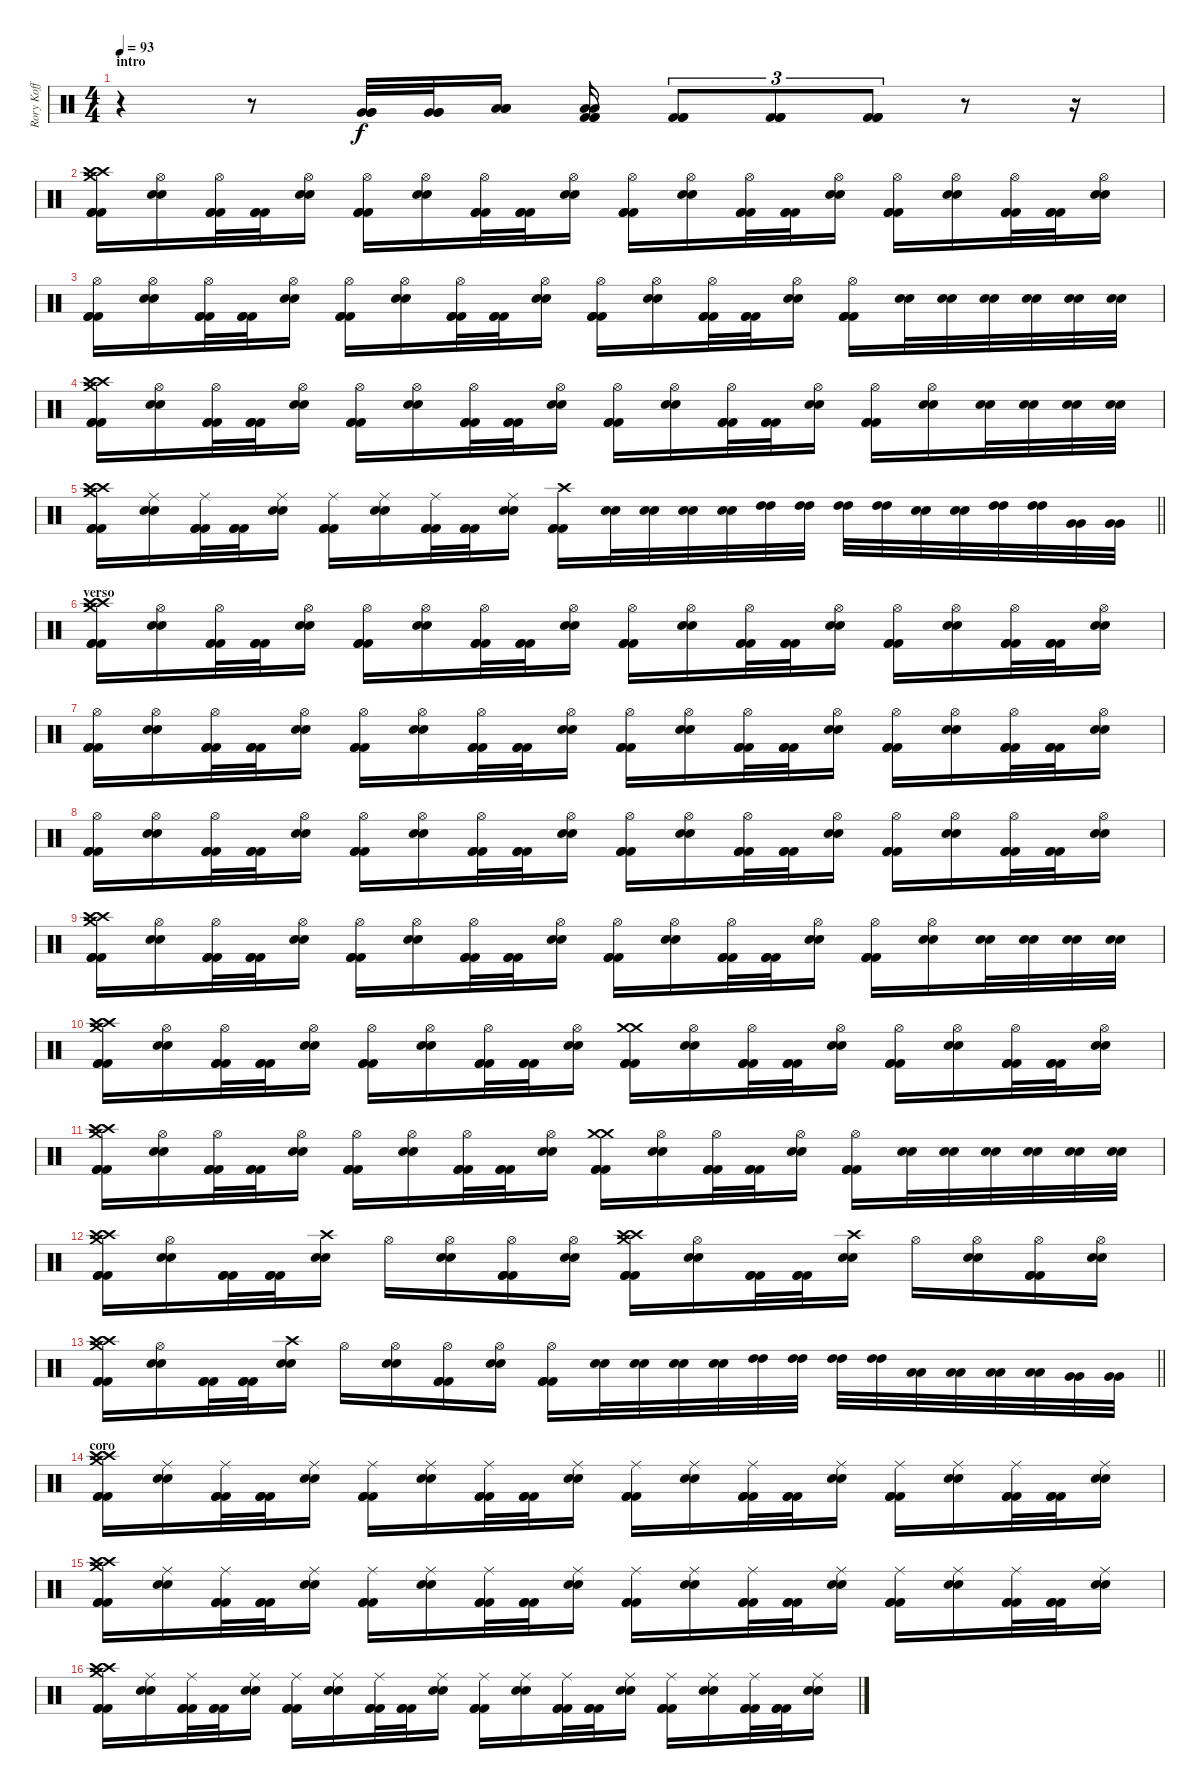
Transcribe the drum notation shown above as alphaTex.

\track ("Rory Koff" "Rory Koff") {instrument percussion}
\staff {score}
\articulation defaults
\ts (4 4)
\section ("" "intro")
\tempo 93
\clef neutral
\ks c
r.4{dy f} r.8 ("Very Low Tom (hit)" "Very Low Tom (hit)" "Very Low Tom (hit)").32 ("Very Low Tom (hit)" "Very Low Tom (hit)" "Very Low Tom (hit)").32 ("Low Floor Tom (hit)" "Low Floor Tom (hit)" "Low Floor Tom (hit)").16 ("Kick (hit) 2" "Low Floor Tom (hit)" "Low Floor Tom (hit)" "Kick (hit) 2" "Kick (hit) 2").16 ("Kick (hit) 2" "Kick (hit) 2" "Kick (hit) 2").8{tu (3 2)} ("Kick (hit) 2" "Kick (hit) 2" "Kick (hit) 2").8{tu (3 2)} ("Kick (hit) 2" "Kick (hit) 2" "Kick (hit) 2").8{tu (3 2)} r.8 r.16 |
("Crash high (hit)" "Crash medium (hit)" "Crash high (hit)" "Kick (hit) 2" "Kick (hit) 2" "Kick (hit) 2").16 ("Hi-Hat (open)" "Electric Snare (hit)" "Electric Snare (hit)").16 ("Hi-Hat (open)" "Kick (hit) 2" "Kick (hit) 2" "Kick (hit) 2").32 ("Kick (hit) 2" "Kick (hit) 2" "Kick (hit) 2").32 ("Hi-Hat (open)" "Electric Snare (hit)" "Electric Snare (hit)").16 ("Hi-Hat (open)" "Kick (hit) 2" "Kick (hit) 2" "Kick (hit) 2").16 ("Hi-Hat (open)" "Electric Snare (hit)" "Electric Snare (hit)").16 ("Hi-Hat (open)" "Kick (hit) 2" "Kick (hit) 2" "Kick (hit) 2").32 ("Kick (hit) 2" "Kick (hit) 2" "Kick (hit) 2").32 ("Hi-Hat (open)" "Electric Snare (hit)" "Electric Snare (hit)").16 ("Hi-Hat (open)" "Kick (hit) 2" "Kick (hit) 2" "Kick (hit) 2").16 ("Hi-Hat (open)" "Electric Snare (hit)" "Electric Snare (hit)").16 ("Hi-Hat (open)" "Kick (hit) 2" "Kick (hit) 2" "Kick (hit) 2").32 ("Kick (hit) 2" "Kick (hit) 2" "Kick (hit) 2").32 ("Hi-Hat (open)" "Electric Snare (hit)" "Electric Snare (hit)").16 ("Hi-Hat (open)" "Kick (hit) 2" "Kick (hit) 2" "Kick (hit) 2").16 ("Hi-Hat (open)" "Electric Snare (hit)" "Electric Snare (hit)").16 ("Hi-Hat (open)" "Kick (hit) 2" "Kick (hit) 2" "Kick (hit) 2").32 ("Kick (hit) 2" "Kick (hit) 2" "Kick (hit) 2").32 ("Hi-Hat (open)" "Electric Snare (hit)" "Electric Snare (hit)").16 |
("Hi-Hat (open)" "Kick (hit) 2" "Kick (hit) 2" "Kick (hit) 2").16 ("Hi-Hat (open)" "Electric Snare (hit)" "Electric Snare (hit)").16 ("Hi-Hat (open)" "Kick (hit) 2" "Kick (hit) 2" "Kick (hit) 2").32 ("Kick (hit) 2" "Kick (hit) 2" "Kick (hit) 2").32 ("Hi-Hat (open)" "Electric Snare (hit)" "Electric Snare (hit)").16 ("Hi-Hat (open)" "Kick (hit) 2" "Kick (hit) 2" "Kick (hit) 2").16 ("Hi-Hat (open)" "Electric Snare (hit)" "Electric Snare (hit)").16 ("Hi-Hat (open)" "Kick (hit) 2" "Kick (hit) 2" "Kick (hit) 2").32 ("Kick (hit) 2" "Kick (hit) 2" "Kick (hit) 2").32 ("Hi-Hat (open)" "Electric Snare (hit)" "Electric Snare (hit)").16 ("Hi-Hat (open)" "Kick (hit) 2" "Kick (hit) 2" "Kick (hit) 2").16 ("Hi-Hat (open)" "Electric Snare (hit)" "Electric Snare (hit)").16 ("Hi-Hat (open)" "Kick (hit) 2" "Kick (hit) 2" "Kick (hit) 2").32 ("Kick (hit) 2" "Kick (hit) 2" "Kick (hit) 2").32 ("Hi-Hat (open)" "Electric Snare (hit)" "Electric Snare (hit)").16 ("Hi-Hat (open)" "Kick (hit) 2" "Kick (hit) 2" "Kick (hit) 2").16 ("Electric Snare (hit)" "Electric Snare (hit)").32 ("Electric Snare (hit)" "Electric Snare (hit)").32 ("Electric Snare (hit)" "Electric Snare (hit)").32 ("Electric Snare (hit)" "Electric Snare (hit)").32 ("Electric Snare (hit)" "Electric Snare (hit)").32 ("Electric Snare (hit)" "Electric Snare (hit)").32 |
("Crash high (hit)" "Crash medium (hit)" "Crash high (hit)" "Kick (hit) 2" "Kick (hit) 2" "Kick (hit) 2").16 ("Hi-Hat (open)" "Electric Snare (hit)" "Electric Snare (hit)").16 ("Hi-Hat (open)" "Kick (hit) 2" "Kick (hit) 2" "Kick (hit) 2").32 ("Kick (hit) 2" "Kick (hit) 2" "Kick (hit) 2").32 ("Hi-Hat (open)" "Electric Snare (hit)" "Electric Snare (hit)").16 ("Hi-Hat (open)" "Kick (hit) 2" "Kick (hit) 2" "Kick (hit) 2").16 ("Hi-Hat (open)" "Electric Snare (hit)" "Electric Snare (hit)").16 ("Hi-Hat (open)" "Kick (hit) 2" "Kick (hit) 2" "Kick (hit) 2").32 ("Kick (hit) 2" "Kick (hit) 2" "Kick (hit) 2").32 ("Hi-Hat (open)" "Electric Snare (hit)" "Electric Snare (hit)").16 ("Hi-Hat (open)" "Kick (hit) 2" "Kick (hit) 2" "Kick (hit) 2").16 ("Hi-Hat (open)" "Electric Snare (hit)" "Electric Snare (hit)").16 ("Hi-Hat (open)" "Kick (hit) 2" "Kick (hit) 2" "Kick (hit) 2").32 ("Kick (hit) 2" "Kick (hit) 2" "Kick (hit) 2").32 ("Hi-Hat (open)" "Electric Snare (hit)" "Electric Snare (hit)").16 ("Hi-Hat (open)" "Kick (hit) 2" "Kick (hit) 2" "Kick (hit) 2").16 ("Hi-Hat (open)" "Electric Snare (hit)" "Electric Snare (hit)").16 ("Electric Snare (hit)" "Electric Snare (hit)").32 ("Electric Snare (hit)" "Electric Snare (hit)").32 ("Electric Snare (hit)" "Electric Snare (hit)").32 ("Electric Snare (hit)" "Electric Snare (hit)").32 |
\barLineRight lightlight
("Crash high (hit)" "Crash medium (hit)" "Crash high (hit)" "Kick (hit) 2" "Kick (hit) 2" "Kick (hit) 2").16 ("Ride (middle)" "Electric Snare (hit)" "Electric Snare (hit)").16 ("Ride (middle)" "Kick (hit) 2" "Kick (hit) 2" "Kick (hit) 2").32 ("Kick (hit) 2" "Kick (hit) 2" "Kick (hit) 2").32 ("Ride (middle)" "Electric Snare (hit)" "Electric Snare (hit)").16 ("Ride (middle)" "Kick (hit) 2" "Kick (hit) 2" "Kick (hit) 2").16 ("Ride (middle)" "Electric Snare (hit)" "Electric Snare (hit)").16 ("Ride (middle)" "Kick (hit) 2" "Kick (hit) 2" "Kick (hit) 2").32 ("Kick (hit) 2" "Kick (hit) 2" "Kick (hit) 2").32 ("Ride (middle)" "Electric Snare (hit)" "Electric Snare (hit)").16 ("Crash high (hit)" "Kick (hit) 2" "Kick (hit) 2" "Kick (hit) 2").16 ("Electric Snare (hit)" "Electric Snare (hit)").32 ("Electric Snare (hit)" "Electric Snare (hit)").32 ("Electric Snare (hit)" "Electric Snare (hit)").32 ("Electric Snare (hit)" "Electric Snare (hit)").32 ("High Tom (hit)" "High Tom (hit)").32 ("High Tom (hit)" "High Tom (hit)").32 ("High Tom (hit)" "High Tom (hit)").32 ("High Tom (hit)" "High Tom (hit)").32 ("Electric Snare (hit)" "Electric Snare (hit)").32 ("Electric Snare (hit)" "Electric Snare (hit)").32 ("High Tom (hit)" "High Tom (hit)").32 ("High Tom (hit)" "High Tom (hit)").32 ("Very Low Tom (hit)" "Very Low Tom (hit)").32 ("Very Low Tom (hit)" "Very Low Tom (hit)").32 |
\section ("" "verso")
("Crash high (hit)" "Crash medium (hit)" "Crash high (hit)" "Kick (hit) 2" "Kick (hit) 2" "Kick (hit) 2").16 ("Hi-Hat (open)" "Electric Snare (hit)" "Electric Snare (hit)").16 ("Hi-Hat (open)" "Kick (hit) 2" "Kick (hit) 2" "Kick (hit) 2").32 ("Kick (hit) 2" "Kick (hit) 2" "Kick (hit) 2").32 ("Hi-Hat (open)" "Electric Snare (hit)" "Electric Snare (hit)").16 ("Hi-Hat (open)" "Kick (hit) 2" "Kick (hit) 2" "Kick (hit) 2").16 ("Hi-Hat (open)" "Electric Snare (hit)" "Electric Snare (hit)").16 ("Hi-Hat (open)" "Kick (hit) 2" "Kick (hit) 2" "Kick (hit) 2").32 ("Kick (hit) 2" "Kick (hit) 2" "Kick (hit) 2").32 ("Hi-Hat (open)" "Electric Snare (hit)" "Electric Snare (hit)").16 ("Hi-Hat (open)" "Kick (hit) 2" "Kick (hit) 2" "Kick (hit) 2").16 ("Hi-Hat (open)" "Electric Snare (hit)" "Electric Snare (hit)").16 ("Hi-Hat (open)" "Kick (hit) 2" "Kick (hit) 2" "Kick (hit) 2").32 ("Kick (hit) 2" "Kick (hit) 2" "Kick (hit) 2").32 ("Hi-Hat (open)" "Electric Snare (hit)" "Electric Snare (hit)").16 ("Hi-Hat (open)" "Kick (hit) 2" "Kick (hit) 2" "Kick (hit) 2").16 ("Hi-Hat (open)" "Electric Snare (hit)" "Electric Snare (hit)").16 ("Hi-Hat (open)" "Kick (hit) 2" "Kick (hit) 2" "Kick (hit) 2").32 ("Kick (hit) 2" "Kick (hit) 2" "Kick (hit) 2").32 ("Hi-Hat (open)" "Electric Snare (hit)" "Electric Snare (hit)").16 |
("Hi-Hat (open)" "Kick (hit) 2" "Kick (hit) 2" "Kick (hit) 2").16 ("Hi-Hat (open)" "Electric Snare (hit)" "Electric Snare (hit)").16 ("Hi-Hat (open)" "Kick (hit) 2" "Kick (hit) 2" "Kick (hit) 2").32 ("Kick (hit) 2" "Kick (hit) 2" "Kick (hit) 2").32 ("Hi-Hat (open)" "Electric Snare (hit)" "Electric Snare (hit)").16 ("Hi-Hat (open)" "Kick (hit) 2" "Kick (hit) 2" "Kick (hit) 2").16 ("Hi-Hat (open)" "Electric Snare (hit)" "Electric Snare (hit)").16 ("Hi-Hat (open)" "Kick (hit) 2" "Kick (hit) 2" "Kick (hit) 2").32 ("Kick (hit) 2" "Kick (hit) 2" "Kick (hit) 2").32 ("Hi-Hat (open)" "Electric Snare (hit)" "Electric Snare (hit)").16 ("Hi-Hat (open)" "Kick (hit) 2" "Kick (hit) 2" "Kick (hit) 2").16 ("Hi-Hat (open)" "Electric Snare (hit)" "Electric Snare (hit)").16 ("Hi-Hat (open)" "Kick (hit) 2" "Kick (hit) 2" "Kick (hit) 2").32 ("Kick (hit) 2" "Kick (hit) 2" "Kick (hit) 2").32 ("Hi-Hat (open)" "Electric Snare (hit)" "Electric Snare (hit)").16 ("Hi-Hat (open)" "Kick (hit) 2" "Kick (hit) 2" "Kick (hit) 2").16 ("Hi-Hat (open)" "Electric Snare (hit)" "Electric Snare (hit)").16 ("Hi-Hat (open)" "Kick (hit) 2" "Kick (hit) 2" "Kick (hit) 2").32 ("Kick (hit) 2" "Kick (hit) 2" "Kick (hit) 2").32 ("Hi-Hat (open)" "Electric Snare (hit)" "Electric Snare (hit)").16 |
("Hi-Hat (open)" "Kick (hit) 2" "Kick (hit) 2" "Kick (hit) 2").16 ("Hi-Hat (open)" "Electric Snare (hit)" "Electric Snare (hit)").16 ("Hi-Hat (open)" "Kick (hit) 2" "Kick (hit) 2" "Kick (hit) 2").32 ("Kick (hit) 2" "Kick (hit) 2" "Kick (hit) 2").32 ("Hi-Hat (open)" "Electric Snare (hit)" "Electric Snare (hit)").16 ("Hi-Hat (open)" "Kick (hit) 2" "Kick (hit) 2" "Kick (hit) 2").16 ("Hi-Hat (open)" "Electric Snare (hit)" "Electric Snare (hit)").16 ("Hi-Hat (open)" "Kick (hit) 2" "Kick (hit) 2" "Kick (hit) 2").32 ("Kick (hit) 2" "Kick (hit) 2" "Kick (hit) 2").32 ("Hi-Hat (open)" "Electric Snare (hit)" "Electric Snare (hit)").16 ("Hi-Hat (open)" "Kick (hit) 2" "Kick (hit) 2" "Kick (hit) 2").16 ("Hi-Hat (open)" "Electric Snare (hit)" "Electric Snare (hit)").16 ("Hi-Hat (open)" "Kick (hit) 2" "Kick (hit) 2" "Kick (hit) 2").32 ("Kick (hit) 2" "Kick (hit) 2" "Kick (hit) 2").32 ("Hi-Hat (open)" "Electric Snare (hit)" "Electric Snare (hit)").16 ("Hi-Hat (open)" "Kick (hit) 2" "Kick (hit) 2" "Kick (hit) 2").16 ("Hi-Hat (open)" "Electric Snare (hit)" "Electric Snare (hit)").16 ("Hi-Hat (open)" "Kick (hit) 2" "Kick (hit) 2" "Kick (hit) 2").32 ("Kick (hit) 2" "Kick (hit) 2" "Kick (hit) 2").32 ("Hi-Hat (open)" "Electric Snare (hit)" "Electric Snare (hit)").16 |
("Crash high (hit)" "Crash medium (hit)" "Crash high (hit)" "Kick (hit) 2" "Kick (hit) 2" "Kick (hit) 2").16 ("Hi-Hat (open)" "Electric Snare (hit)" "Electric Snare (hit)").16 ("Hi-Hat (open)" "Kick (hit) 2" "Kick (hit) 2" "Kick (hit) 2").32 ("Kick (hit) 2" "Kick (hit) 2" "Kick (hit) 2").32 ("Hi-Hat (open)" "Electric Snare (hit)" "Electric Snare (hit)").16 ("Hi-Hat (open)" "Kick (hit) 2" "Kick (hit) 2" "Kick (hit) 2").16 ("Hi-Hat (open)" "Electric Snare (hit)" "Electric Snare (hit)").16 ("Hi-Hat (open)" "Kick (hit) 2" "Kick (hit) 2" "Kick (hit) 2").32 ("Kick (hit) 2" "Kick (hit) 2" "Kick (hit) 2").32 ("Hi-Hat (open)" "Electric Snare (hit)" "Electric Snare (hit)").16 ("Hi-Hat (open)" "Kick (hit) 2" "Kick (hit) 2" "Kick (hit) 2").16 ("Hi-Hat (open)" "Electric Snare (hit)" "Electric Snare (hit)").16 ("Hi-Hat (open)" "Kick (hit) 2" "Kick (hit) 2" "Kick (hit) 2").32 ("Kick (hit) 2" "Kick (hit) 2" "Kick (hit) 2").32 ("Hi-Hat (open)" "Electric Snare (hit)" "Electric Snare (hit)").16 ("Hi-Hat (open)" "Kick (hit) 2" "Kick (hit) 2" "Kick (hit) 2").16 ("Hi-Hat (open)" "Electric Snare (hit)" "Electric Snare (hit)").16 ("Electric Snare (hit)" "Electric Snare (hit)").32 ("Electric Snare (hit)" "Electric Snare (hit)").32 ("Electric Snare (hit)" "Electric Snare (hit)").32 ("Electric Snare (hit)" "Electric Snare (hit)").32 |
("Crash high (hit)" "Crash medium (hit)" "Crash high (hit)" "Kick (hit) 2" "Kick (hit) 2" "Kick (hit) 2").16 ("Hi-Hat (open)" "Electric Snare (hit)" "Electric Snare (hit)").16 ("Hi-Hat (open)" "Kick (hit) 2" "Kick (hit) 2" "Kick (hit) 2").32 ("Kick (hit) 2" "Kick (hit) 2" "Kick (hit) 2").32 ("Hi-Hat (open)" "Electric Snare (hit)" "Electric Snare (hit)").16 ("Hi-Hat (open)" "Kick (hit) 2" "Kick (hit) 2" "Kick (hit) 2").16 ("Hi-Hat (open)" "Electric Snare (hit)" "Electric Snare (hit)").16 ("Hi-Hat (open)" "Kick (hit) 2" "Kick (hit) 2" "Kick (hit) 2").32 ("Kick (hit) 2" "Kick (hit) 2" "Kick (hit) 2").32 ("Hi-Hat (open)" "Electric Snare (hit)" "Electric Snare (hit)").16 ("Crash medium (hit)" "Crash medium (hit)" "Kick (hit) 2" "Kick (hit) 2" "Kick (hit) 2").16 ("Hi-Hat (open)" "Electric Snare (hit)" "Electric Snare (hit)").16 ("Hi-Hat (open)" "Kick (hit) 2" "Kick (hit) 2" "Kick (hit) 2").32 ("Kick (hit) 2" "Kick (hit) 2" "Kick (hit) 2").32 ("Hi-Hat (open)" "Electric Snare (hit)" "Electric Snare (hit)").16 ("Hi-Hat (open)" "Kick (hit) 2" "Kick (hit) 2" "Kick (hit) 2").16 ("Hi-Hat (open)" "Electric Snare (hit)" "Electric Snare (hit)").16 ("Hi-Hat (open)" "Kick (hit) 2" "Kick (hit) 2" "Kick (hit) 2").32 ("Kick (hit) 2" "Kick (hit) 2" "Kick (hit) 2").32 ("Hi-Hat (open)" "Electric Snare (hit)" "Electric Snare (hit)").16 |
("Crash high (hit)" "Crash medium (hit)" "Crash high (hit)" "Kick (hit) 2" "Kick (hit) 2" "Kick (hit) 2").16 ("Hi-Hat (open)" "Electric Snare (hit)" "Electric Snare (hit)").16 ("Hi-Hat (open)" "Kick (hit) 2" "Kick (hit) 2" "Kick (hit) 2").32 ("Kick (hit) 2" "Kick (hit) 2" "Kick (hit) 2").32 ("Hi-Hat (open)" "Electric Snare (hit)" "Electric Snare (hit)").16 ("Hi-Hat (open)" "Kick (hit) 2" "Kick (hit) 2" "Kick (hit) 2").16 ("Hi-Hat (open)" "Electric Snare (hit)" "Electric Snare (hit)").16 ("Hi-Hat (open)" "Kick (hit) 2" "Kick (hit) 2" "Kick (hit) 2").32 ("Kick (hit) 2" "Kick (hit) 2" "Kick (hit) 2").32 ("Hi-Hat (open)" "Electric Snare (hit)" "Electric Snare (hit)").16 ("Crash medium (hit)" "Crash medium (hit)" "Kick (hit) 2" "Kick (hit) 2" "Kick (hit) 2").16 ("Hi-Hat (open)" "Electric Snare (hit)" "Electric Snare (hit)").16 ("Hi-Hat (open)" "Kick (hit) 2" "Kick (hit) 2" "Kick (hit) 2").32 ("Kick (hit) 2" "Kick (hit) 2" "Kick (hit) 2").32 ("Hi-Hat (open)" "Electric Snare (hit)" "Electric Snare (hit)").16 ("Hi-Hat (open)" "Kick (hit) 2" "Kick (hit) 2" "Kick (hit) 2").16 ("Electric Snare (hit)" "Electric Snare (hit)").32 ("Electric Snare (hit)" "Electric Snare (hit)").32 ("Electric Snare (hit)" "Electric Snare (hit)").32 ("Electric Snare (hit)" "Electric Snare (hit)").32 ("Electric Snare (hit)" "Electric Snare (hit)").32 ("Electric Snare (hit)" "Electric Snare (hit)").32 |
("Crash high (hit)" "Crash medium (hit)" "Crash high (hit)" "Kick (hit) 2" "Kick (hit) 2" "Kick (hit) 2").16 ("Hi-Hat (open)" "Electric Snare (hit)" "Electric Snare (hit)").16 ("Kick (hit) 2" "Kick (hit) 2" "Kick (hit) 2").32 ("Kick (hit) 2" "Kick (hit) 2" "Kick (hit) 2").32 ("Crash high (hit)" "Electric Snare (hit)" "Electric Snare (hit)").16 "Hi-Hat (open)".16 ("Hi-Hat (open)" "Electric Snare (hit)" "Electric Snare (hit)").16 ("Hi-Hat (open)" "Kick (hit) 2" "Kick (hit) 2" "Kick (hit) 2").16 ("Hi-Hat (open)" "Electric Snare (hit)" "Electric Snare (hit)").16 ("Crash high (hit)" "Crash medium (hit)" "Crash high (hit)" "Kick (hit) 2" "Kick (hit) 2" "Kick (hit) 2").16 ("Hi-Hat (open)" "Electric Snare (hit)" "Electric Snare (hit)").16 ("Kick (hit) 2" "Kick (hit) 2" "Kick (hit) 2").32 ("Kick (hit) 2" "Kick (hit) 2" "Kick (hit) 2").32 ("Crash high (hit)" "Electric Snare (hit)" "Electric Snare (hit)").16 "Hi-Hat (open)".16 ("Hi-Hat (open)" "Electric Snare (hit)" "Electric Snare (hit)").16 ("Hi-Hat (open)" "Kick (hit) 2" "Kick (hit) 2" "Kick (hit) 2").16 ("Hi-Hat (open)" "Electric Snare (hit)" "Electric Snare (hit)").16 |
\barLineRight lightlight
("Crash high (hit)" "Crash medium (hit)" "Crash high (hit)" "Kick (hit) 2" "Kick (hit) 2" "Kick (hit) 2").16 ("Hi-Hat (open)" "Electric Snare (hit)" "Electric Snare (hit)").16 ("Kick (hit) 2" "Kick (hit) 2" "Kick (hit) 2").32 ("Kick (hit) 2" "Kick (hit) 2" "Kick (hit) 2").32 ("Crash high (hit)" "Electric Snare (hit)" "Electric Snare (hit)").16 "Hi-Hat (open)".16 ("Hi-Hat (open)" "Electric Snare (hit)" "Electric Snare (hit)").16 ("Hi-Hat (open)" "Kick (hit) 2" "Kick (hit) 2" "Kick (hit) 2").16 ("Hi-Hat (open)" "Electric Snare (hit)" "Electric Snare (hit)").16 ("Hi-Hat (open)" "Kick (hit) 2" "Kick (hit) 2" "Kick (hit) 2").16 ("Electric Snare (hit)" "Electric Snare (hit)").32 ("Electric Snare (hit)" "Electric Snare (hit)").32 ("Electric Snare (hit)" "Electric Snare (hit)").32 ("Electric Snare (hit)" "Electric Snare (hit)").32 ("High Tom (hit)" "High Tom (hit)").32 ("High Tom (hit)" "High Tom (hit)").32 ("High Tom (hit)" "High Tom (hit)").32 ("High Tom (hit)" "High Tom (hit)").32 ("Low Tom (hit)" "Low Tom (hit)").32 ("Low Tom (hit)" "Low Tom (hit)").32 ("Low Tom (hit)" "Low Tom (hit)").32 ("Low Tom (hit)" "Low Tom (hit)").32 ("Very Low Tom (hit)" "Very Low Tom (hit)").32 ("Very Low Tom (hit)" "Very Low Tom (hit)").32 |
\section ("" "coro")
("Crash high (hit)" "Crash medium (hit)" "Crash high (hit)" "Kick (hit) 2" "Kick (hit) 2" "Kick (hit) 2").16 ("Ride (middle)" "Electric Snare (hit)" "Electric Snare (hit)").16 ("Ride (middle)" "Kick (hit) 2" "Kick (hit) 2" "Kick (hit) 2").32 ("Kick (hit) 2" "Kick (hit) 2" "Kick (hit) 2").32 ("Ride (middle)" "Electric Snare (hit)" "Electric Snare (hit)").16 ("Ride (middle)" "Kick (hit) 2" "Kick (hit) 2" "Kick (hit) 2").16 ("Ride (middle)" "Electric Snare (hit)" "Electric Snare (hit)").16 ("Ride (middle)" "Kick (hit) 2" "Kick (hit) 2" "Kick (hit) 2").32 ("Kick (hit) 2" "Kick (hit) 2" "Kick (hit) 2").32 ("Ride (middle)" "Electric Snare (hit)" "Electric Snare (hit)").16 ("Ride (middle)" "Kick (hit) 2" "Kick (hit) 2" "Kick (hit) 2").16 ("Ride (middle)" "Electric Snare (hit)" "Electric Snare (hit)").16 ("Ride (middle)" "Kick (hit) 2" "Kick (hit) 2" "Kick (hit) 2").32 ("Kick (hit) 2" "Kick (hit) 2" "Kick (hit) 2").32 ("Ride (middle)" "Electric Snare (hit)" "Electric Snare (hit)").16 ("Ride (middle)" "Kick (hit) 2" "Kick (hit) 2" "Kick (hit) 2").16 ("Ride (middle)" "Electric Snare (hit)" "Electric Snare (hit)").16 ("Ride (middle)" "Kick (hit) 2" "Kick (hit) 2" "Kick (hit) 2").32 ("Kick (hit) 2" "Kick (hit) 2" "Kick (hit) 2").32 ("Ride (middle)" "Electric Snare (hit)" "Electric Snare (hit)").16 |
("Crash high (hit)" "Crash medium (hit)" "Crash high (hit)" "Kick (hit) 2" "Kick (hit) 2" "Kick (hit) 2").16 ("Ride (middle)" "Electric Snare (hit)" "Electric Snare (hit)").16 ("Ride (middle)" "Kick (hit) 2" "Kick (hit) 2" "Kick (hit) 2").32 ("Kick (hit) 2" "Kick (hit) 2" "Kick (hit) 2").32 ("Ride (middle)" "Electric Snare (hit)" "Electric Snare (hit)").16 ("Ride (middle)" "Kick (hit) 2" "Kick (hit) 2" "Kick (hit) 2").16 ("Ride (middle)" "Electric Snare (hit)" "Electric Snare (hit)").16 ("Ride (middle)" "Kick (hit) 2" "Kick (hit) 2" "Kick (hit) 2").32 ("Kick (hit) 2" "Kick (hit) 2" "Kick (hit) 2").32 ("Ride (middle)" "Electric Snare (hit)" "Electric Snare (hit)").16 ("Ride (middle)" "Kick (hit) 2" "Kick (hit) 2" "Kick (hit) 2").16 ("Ride (middle)" "Electric Snare (hit)" "Electric Snare (hit)").16 ("Ride (middle)" "Kick (hit) 2" "Kick (hit) 2" "Kick (hit) 2").32 ("Kick (hit) 2" "Kick (hit) 2" "Kick (hit) 2").32 ("Ride (middle)" "Electric Snare (hit)" "Electric Snare (hit)").16 ("Ride (middle)" "Kick (hit) 2" "Kick (hit) 2" "Kick (hit) 2").16 ("Ride (middle)" "Electric Snare (hit)" "Electric Snare (hit)").16 ("Ride (middle)" "Kick (hit) 2" "Kick (hit) 2" "Kick (hit) 2").32 ("Kick (hit) 2" "Kick (hit) 2" "Kick (hit) 2").32 ("Ride (middle)" "Electric Snare (hit)" "Electric Snare (hit)").16 |
("Crash high (hit)" "Crash medium (hit)" "Crash high (hit)" "Kick (hit) 2" "Kick (hit) 2" "Kick (hit) 2").16 ("Ride (middle)" "Electric Snare (hit)" "Electric Snare (hit)").16 ("Ride (middle)" "Kick (hit) 2" "Kick (hit) 2" "Kick (hit) 2").32 ("Kick (hit) 2" "Kick (hit) 2" "Kick (hit) 2").32 ("Ride (middle)" "Electric Snare (hit)" "Electric Snare (hit)").16 ("Ride (middle)" "Kick (hit) 2" "Kick (hit) 2" "Kick (hit) 2").16 ("Ride (middle)" "Electric Snare (hit)" "Electric Snare (hit)").16 ("Ride (middle)" "Kick (hit) 2" "Kick (hit) 2" "Kick (hit) 2").32 ("Kick (hit) 2" "Kick (hit) 2" "Kick (hit) 2").32 ("Ride (middle)" "Electric Snare (hit)" "Electric Snare (hit)").16 ("Ride (middle)" "Kick (hit) 2" "Kick (hit) 2" "Kick (hit) 2").16 ("Ride (middle)" "Electric Snare (hit)" "Electric Snare (hit)").16 ("Ride (middle)" "Kick (hit) 2" "Kick (hit) 2" "Kick (hit) 2").32 ("Kick (hit) 2" "Kick (hit) 2" "Kick (hit) 2").32 ("Ride (middle)" "Electric Snare (hit)" "Electric Snare (hit)").16 ("Ride (middle)" "Kick (hit) 2" "Kick (hit) 2" "Kick (hit) 2").16 ("Ride (middle)" "Electric Snare (hit)" "Electric Snare (hit)").16 ("Ride (middle)" "Kick (hit) 2" "Kick (hit) 2" "Kick (hit) 2").32 ("Kick (hit) 2" "Kick (hit) 2" "Kick (hit) 2").32 ("Ride (middle)" "Electric Snare (hit)" "Electric Snare (hit)").16
